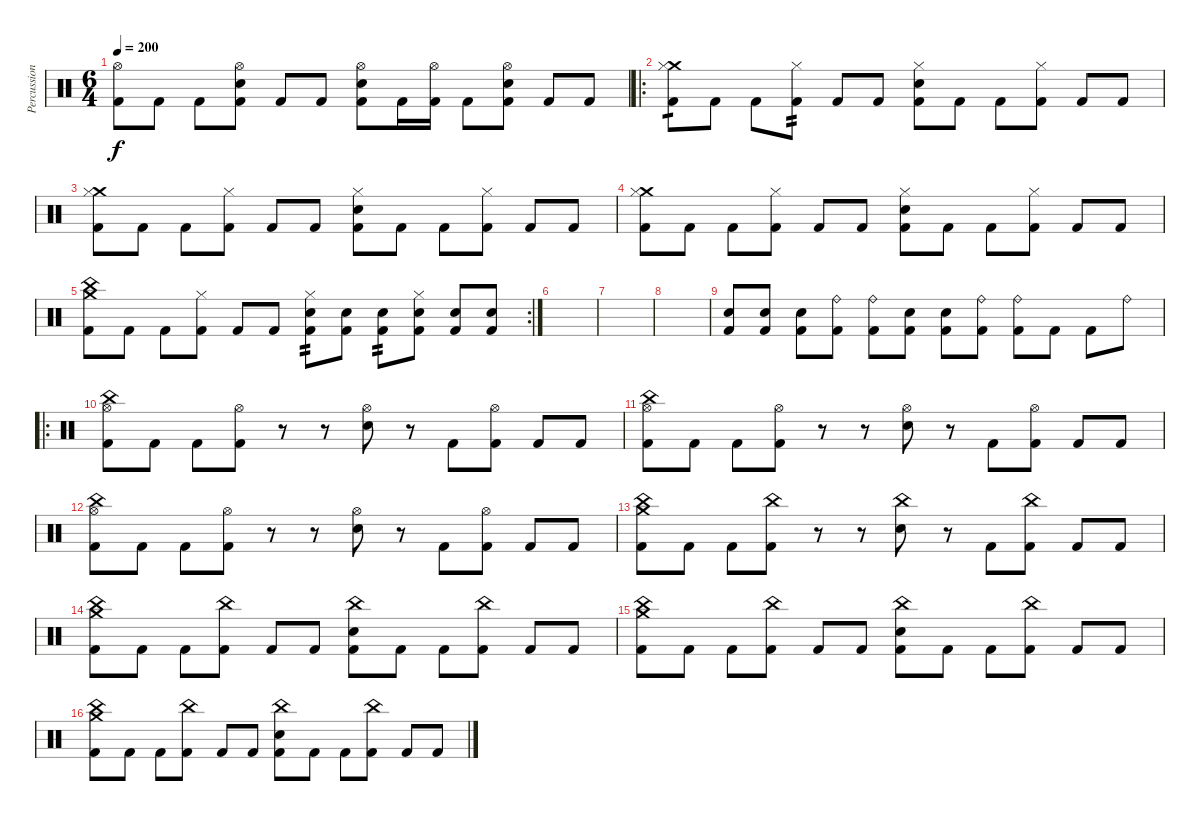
\track ("Percussion" "Percussion") {instrument percussion}
\staff {score}
\articulation defaults
\ts (6 4)
\tempo 200
\clef neutral
\ks c
("Hi-Hat (open)" "Kick (hit) 2").8{dy f} "Kick (hit) 2".8 "Kick (hit) 2".8 ("Hi-Hat (open)" "Electric Snare (hit)" "Kick (hit) 2").8 "Kick (hit) 2".8 "Kick (hit) 2".8 ("Hi-Hat (open)" "Electric Snare (hit)" "Kick (hit) 2").8 "Kick (hit) 2".16 ("Hi-Hat (open)" "Kick (hit) 2").16 "Kick (hit) 2".8 ("Hi-Hat (open)" "Electric Snare (hit)" "Kick (hit) 2").8 "Kick (hit) 2".8 "Kick (hit) 2".8 |
\ro
("Crash medium (hit)" "Hi-Hat (closed)" "Kick (hit) 2").8{tp 1} "Kick (hit) 2".8 "Kick (hit) 2".8 ("Hi-Hat (closed)" "Kick (hit) 2").8{tp 2} "Kick (hit) 2".8 "Kick (hit) 2".8 ("Hi-Hat (closed)" "Electric Snare (hit)" "Kick (hit) 2").8 "Kick (hit) 2".8 "Kick (hit) 2".8 ("Hi-Hat (closed)" "Kick (hit) 2").8 "Kick (hit) 2".8 "Kick (hit) 2".8 |
("Crash medium (hit)" "Hi-Hat (closed)" "Kick (hit) 2").8 "Kick (hit) 2".8 "Kick (hit) 2".8 ("Hi-Hat (closed)" "Kick (hit) 2").8 "Kick (hit) 2".8 "Kick (hit) 2".8 ("Hi-Hat (closed)" "Electric Snare (hit)" "Kick (hit) 2").8 "Kick (hit) 2".8 "Kick (hit) 2".8 ("Hi-Hat (closed)" "Kick (hit) 2").8 "Kick (hit) 2".8 "Kick (hit) 2".8 |
("Crash medium (hit)" "Hi-Hat (closed)" "Kick (hit) 2").8 "Kick (hit) 2".8 "Kick (hit) 2".8 ("Hi-Hat (closed)" "Kick (hit) 2").8 "Kick (hit) 2".8 "Kick (hit) 2".8 ("Hi-Hat (closed)" "Electric Snare (hit)" "Kick (hit) 2").8 "Kick (hit) 2".8 "Kick (hit) 2".8 ("Hi-Hat (closed)" "Kick (hit) 2").8 "Kick (hit) 2".8 "Kick (hit) 2".8 |
\rc 2
("Crash medium (hit)" "China (hit)" "Kick (hit) 2").8 "Kick (hit) 2".8 "Kick (hit) 2".8 ("Hi-Hat (closed)" "Kick (hit) 2").8 "Kick (hit) 2".8 "Kick (hit) 2".8 ("Hi-Hat (closed)" "Electric Snare (hit)" "Kick (hit) 2").8{tp 2} ("Electric Snare (hit)" "Kick (hit) 2").8 ("Electric Snare (hit)" "Kick (hit) 2").8{tp 2} ("Hi-Hat (closed)" "Electric Snare (hit)" "Kick (hit) 2").8 ("Electric Snare (hit)" "Kick (hit) 2").8 ("Electric Snare (hit)" "Kick (hit) 2").8 |
|
|
|
("Electric Snare (hit)" "Kick (hit) 2").8 ("Electric Snare (hit)" "Kick (hit) 2").8 ("Electric Snare (hit)" "Kick (hit) 2").8 ("Ride (bell)" "Kick (hit) 2").8 ("Ride (bell)" "Kick (hit) 2").8 ("Electric Snare (hit)" "Kick (hit) 2").8 ("Electric Snare (hit)" "Kick (hit) 2").8 ("Ride (bell)" "Kick (hit) 2").8 ("Ride (bell)" "Kick (hit) 2").8 "Kick (hit) 2".8 "Kick (hit) 2".8 "Ride (bell)".8 |
\ro
("Hi-Hat (open)" "China (hit)" "Kick (hit) 2").8 "Kick (hit) 2".8 "Kick (hit) 2".8 ("Hi-Hat (open)" "Kick (hit) 2").8 r.8 r.8 ("Hi-Hat (open)" "Electric Snare (hit)").8 r.8 "Kick (hit) 2".8 ("Hi-Hat (open)" "Kick (hit) 2").8 "Kick (hit) 2".8 "Kick (hit) 2".8 |
("Hi-Hat (open)" "China (hit)" "Kick (hit) 2").8 "Kick (hit) 2".8 "Kick (hit) 2".8 ("Hi-Hat (open)" "Kick (hit) 2").8 r.8 r.8 ("Hi-Hat (open)" "Electric Snare (hit)").8 r.8 "Kick (hit) 2".8 ("Hi-Hat (open)" "Kick (hit) 2").8 "Kick (hit) 2".8 "Kick (hit) 2".8 |
("Hi-Hat (open)" "China (hit)" "Kick (hit) 2").8 "Kick (hit) 2".8 "Kick (hit) 2".8 ("Hi-Hat (open)" "Kick (hit) 2").8 r.8 r.8 ("Hi-Hat (open)" "Electric Snare (hit)").8 r.8 "Kick (hit) 2".8 ("Hi-Hat (open)" "Kick (hit) 2").8 "Kick (hit) 2".8 "Kick (hit) 2".8 |
("Crash medium (hit)" "China (hit)" "Kick (hit) 2").8 "Kick (hit) 2".8 "Kick (hit) 2".8 ("China (hit)" "Kick (hit) 2").8 r.8 r.8 ("China (hit)" "Electric Snare (hit)").8 r.8 "Kick (hit) 2".8 ("China (hit)" "Kick (hit) 2").8 "Kick (hit) 2".8 "Kick (hit) 2".8 |
("Crash medium (hit)" "China (hit)" "Kick (hit) 2").8 "Kick (hit) 2".8 "Kick (hit) 2".8 ("China (hit)" "Kick (hit) 2").8 "Kick (hit) 2".8 "Kick (hit) 2".8 ("China (hit)" "Electric Snare (hit)" "Kick (hit) 2").8 "Kick (hit) 2".8 "Kick (hit) 2".8 ("China (hit)" "Kick (hit) 2").8 "Kick (hit) 2".8 "Kick (hit) 2".8 |
("Crash medium (hit)" "China (hit)" "Kick (hit) 2").8 "Kick (hit) 2".8 "Kick (hit) 2".8 ("China (hit)" "Kick (hit) 2").8 "Kick (hit) 2".8 "Kick (hit) 2".8 ("China (hit)" "Electric Snare (hit)" "Kick (hit) 2").8 "Kick (hit) 2".8 "Kick (hit) 2".8 ("China (hit)" "Kick (hit) 2").8 "Kick (hit) 2".8 "Kick (hit) 2".8 |
("Crash medium (hit)" "China (hit)" "Kick (hit) 2").8 "Kick (hit) 2".8 "Kick (hit) 2".8 ("China (hit)" "Kick (hit) 2").8 "Kick (hit) 2".8 "Kick (hit) 2".8 ("China (hit)" "Electric Snare (hit)" "Kick (hit) 2").8 "Kick (hit) 2".8 "Kick (hit) 2".8 ("China (hit)" "Kick (hit) 2").8 "Kick (hit) 2".8 "Kick (hit) 2".8
